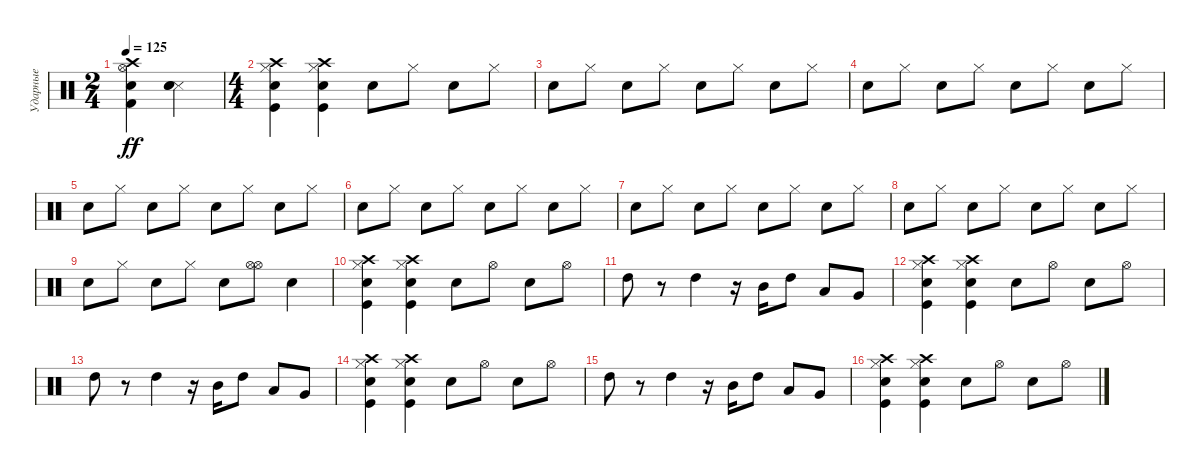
\track ("Ударные" "Ударные") {instrument percussion}
\staff {score}
\articulation defaults
\ts (2 4)
\tempo 125
\clef neutral
\ks c
("Crash high (hit)" "Hi-Hat (open)" "Snare (hit) 2" "Kick (hit) 2").4{dy ff} ("Snare (side stick) 3" "Snare (hit) 2" "Electric Snare (hit)").4 |
\ts (4 4)
("Crash high (hit)" "Hi-Hat (closed)" "Snare (hit) 2" "Kick (hit)").4 ("Crash high (hit)" "Hi-Hat (closed)" "Snare (hit) 2" "Kick (hit)").4 "Snare (hit) 2".8 "Hi-Hat (closed)".8 "Snare (hit) 2".8 "Hi-Hat (closed)".8 |
"Snare (hit) 2".8 "Hi-Hat (closed)".8 "Snare (hit) 2".8 "Hi-Hat (closed)".8 "Snare (hit) 2".8 "Hi-Hat (closed)".8 "Snare (hit) 2".8 "Hi-Hat (closed)".8 |
"Snare (hit) 2".8 "Hi-Hat (closed)".8 "Snare (hit) 2".8 "Hi-Hat (closed)".8 "Snare (hit) 2".8 "Hi-Hat (closed)".8 "Snare (hit) 2".8 "Hi-Hat (closed)".8 |
"Snare (hit) 2".8 "Hi-Hat (closed)".8 "Snare (hit) 2".8 "Hi-Hat (closed)".8 "Snare (hit) 2".8 "Hi-Hat (closed)".8 "Snare (hit) 2".8 "Hi-Hat (closed)".8 |
"Snare (hit) 2".8 "Hi-Hat (closed)".8 "Snare (hit) 2".8 "Hi-Hat (closed)".8 "Snare (hit) 2".8 "Hi-Hat (closed)".8 "Snare (hit) 2".8 "Hi-Hat (closed)".8 |
"Snare (hit) 2".8 "Hi-Hat (closed)".8 "Snare (hit) 2".8 "Hi-Hat (closed)".8 "Snare (hit) 2".8 "Hi-Hat (closed)".8 "Snare (hit) 2".8 "Hi-Hat (closed)".8 |
"Snare (hit) 2".8 "Hi-Hat (closed)".8 "Snare (hit) 2".8 "Hi-Hat (closed)".8 "Snare (hit) 2".8 "Hi-Hat (closed)".8 "Snare (hit) 2".8 "Hi-Hat (closed)".8 |
"Snare (hit) 2".8 "Hi-Hat (closed)".8 "Snare (hit) 2".8 "Hi-Hat (closed)".8 "Snare (hit) 2".8 ("Hi-Hat (open)" "Hi-Hat (open)").8 "Electric Snare (hit)".4 |
("Crash high (hit)" "Hi-Hat (closed)" "Snare (hit) 2" "Kick (hit)").4 ("Crash high (hit)" "Hi-Hat (closed)" "Snare (hit) 2" "Kick (hit)").4 "Snare (hit) 2".8 "Hi-Hat (open)".8 "Snare (hit) 2".8 "Hi-Hat (open)".8 |
"High Tom (hit)".8 r.8 "High Tom (hit)".4 r.16 "Mid Tom (hit)".16 "High Tom (hit)".8 "Low Tom (hit)".8 "Very Low Tom (hit)".8 |
("Crash high (hit)" "Hi-Hat (closed)" "Snare (hit) 2" "Kick (hit)").4 ("Crash high (hit)" "Hi-Hat (closed)" "Snare (hit) 2" "Kick (hit)").4 "Snare (hit) 2".8 "Hi-Hat (open)".8 "Snare (hit) 2".8 "Hi-Hat (open)".8 |
"High Tom (hit)".8 r.8 "High Tom (hit)".4 r.16 "Mid Tom (hit)".16 "High Tom (hit)".8 "Low Tom (hit)".8 "Very Low Tom (hit)".8 |
("Crash high (hit)" "Hi-Hat (closed)" "Snare (hit) 2" "Kick (hit)").4 ("Crash high (hit)" "Hi-Hat (closed)" "Snare (hit) 2" "Kick (hit)").4 "Snare (hit) 2".8 "Hi-Hat (open)".8 "Snare (hit) 2".8 "Hi-Hat (open)".8 |
"High Tom (hit)".8 r.8 "High Tom (hit)".4 r.16 "Mid Tom (hit)".16 "High Tom (hit)".8 "Low Tom (hit)".8 "Very Low Tom (hit)".8 |
("Crash high (hit)" "Hi-Hat (closed)" "Snare (hit) 2" "Kick (hit)").4 ("Crash high (hit)" "Hi-Hat (closed)" "Snare (hit) 2" "Kick (hit)").4 "Snare (hit) 2".8 "Hi-Hat (open)".8 "Snare (hit) 2".8 "Hi-Hat (open)".8
